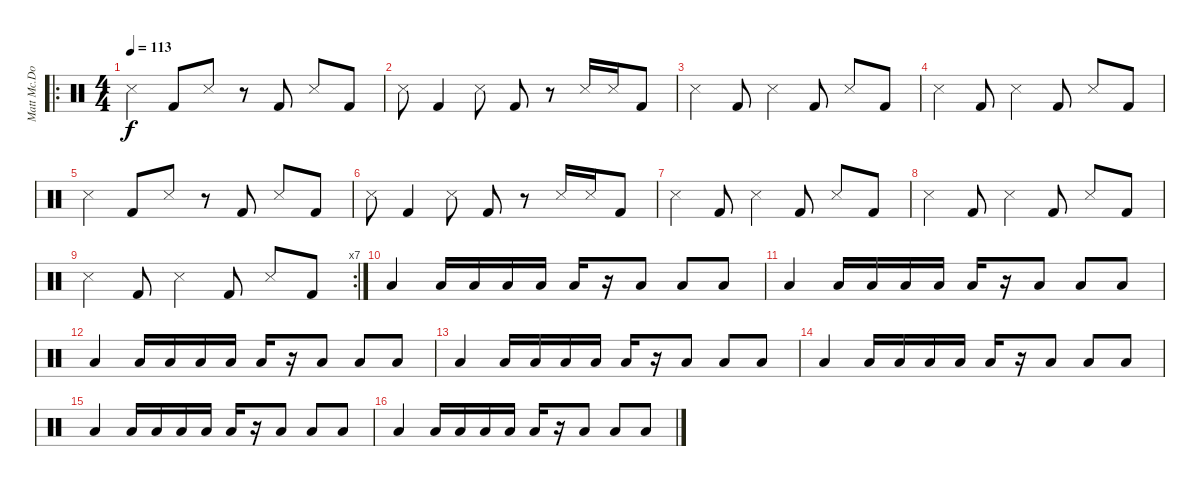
\track ("Matt Mc.Donough" "Matt Mc.Do") {instrument percussion}
\staff {score}
\articulation defaults
\ro
\ts (4 4)
\tempo 113
\clef neutral
\ks c "Snare (side stick) 3".4{dy f} "Kick (hit) 2".8 "Snare (side stick) 3".8
r.8 "Kick (hit) 2".8 "Snare (side stick) 3".8 "Kick (hit) 2".8 |
"Snare (side stick) 3".8 "Kick (hit) 2".4 "Snare (side stick) 3".8 "Kick (hit) 2".8 r.8 "Snare (side stick) 3".16 "Snare (side stick) 3".16 "Kick (hit) 2".8 |
"Snare (side stick) 3".4 "Kick (hit) 2".8 "Snare (side stick) 3".4 "Kick (hit) 2".8 "Snare (side stick) 3".8 "Kick (hit) 2".8 |
"Snare (side stick) 3".4 "Kick (hit) 2".8 "Snare (side stick) 3".4 "Kick (hit) 2".8 "Snare (side stick) 3".8 "Kick (hit) 2".8 |
"Snare (side stick) 3".4 "Kick (hit) 2".8 "Snare (side stick) 3".8 r.8 "Kick (hit) 2".8 "Snare (side stick) 3".8 "Kick (hit) 2".8 |
"Snare (side stick) 3".8 "Kick (hit) 2".4 "Snare (side stick) 3".8 "Kick (hit) 2".8 r.8 "Snare (side stick) 3".16 "Snare (side stick) 3".16 "Kick (hit) 2".8 |
"Snare (side stick) 3".4 "Kick (hit) 2".8 "Snare (side stick) 3".4 "Kick (hit) 2".8 "Snare (side stick) 3".8 "Kick (hit) 2".8 |
"Snare (side stick) 3".4 "Kick (hit) 2".8 "Snare (side stick) 3".4 "Kick (hit) 2".8 "Snare (side stick) 3".8 "Kick (hit) 2".8 |
\rc 7 "Snare (side stick) 3".4 "Kick (hit) 2".8 "Snare (side stick) 3".4 "Kick (hit) 2".8 "Snare (side stick) 3".8 "Kick (hit) 2".8
|
"Low Floor Tom (hit)".4 "Low Floor Tom (hit)".16 "Low Floor Tom (hit)".16 "Low Floor Tom (hit)".16 "Low Floor Tom (hit)".16 "Low Floor Tom (hit)".16 r.16 "Low Floor Tom (hit)".8 "Low Floor Tom (hit)".8 "Low Floor Tom (hit)".8 |
"Low Floor Tom (hit)".4 "Low Floor Tom (hit)".16 "Low Floor Tom (hit)".16 "Low Floor Tom (hit)".16 "Low Floor Tom (hit)".16 "Low Floor Tom (hit)".16 r.16 "Low Floor Tom (hit)".8 "Low Floor Tom (hit)".8 "Low Floor Tom (hit)".8 |
"Low Floor Tom (hit)".4 "Low Floor Tom (hit)".16 "Low Floor Tom (hit)".16 "Low Floor Tom (hit)".16 "Low Floor Tom (hit)".16 "Low Floor Tom (hit)".16 r.16 "Low Floor Tom (hit)".8 "Low Floor Tom (hit)".8 "Low Floor Tom (hit)".8 |
"Low Floor Tom (hit)".4 "Low Floor Tom (hit)".16 "Low Floor Tom (hit)".16 "Low Floor Tom (hit)".16 "Low Floor Tom (hit)".16 "Low Floor Tom (hit)".16 r.16 "Low Floor Tom (hit)".8 "Low Floor Tom (hit)".8 "Low Floor Tom (hit)".8 |
"Low Floor Tom (hit)".4 "Low Floor Tom (hit)".16 "Low Floor Tom (hit)".16 "Low Floor Tom (hit)".16 "Low Floor Tom (hit)".16 "Low Floor Tom (hit)".16 r.16 "Low Floor Tom (hit)".8 "Low Floor Tom (hit)".8 "Low Floor Tom (hit)".8 |
"Low Floor Tom (hit)".4 "Low Floor Tom (hit)".16 "Low Floor Tom (hit)".16 "Low Floor Tom (hit)".16 "Low Floor Tom (hit)".16 "Low Floor Tom (hit)".16 r.16 "Low Floor Tom (hit)".8 "Low Floor Tom (hit)".8 "Low Floor Tom (hit)".8 |
"Low Floor Tom (hit)".4 "Low Floor Tom (hit)".16 "Low Floor Tom (hit)".16 "Low Floor Tom (hit)".16 "Low Floor Tom (hit)".16 "Low Floor Tom (hit)".16 r.16 "Low Floor Tom (hit)".8 "Low Floor Tom (hit)".8 "Low Floor Tom (hit)".8
